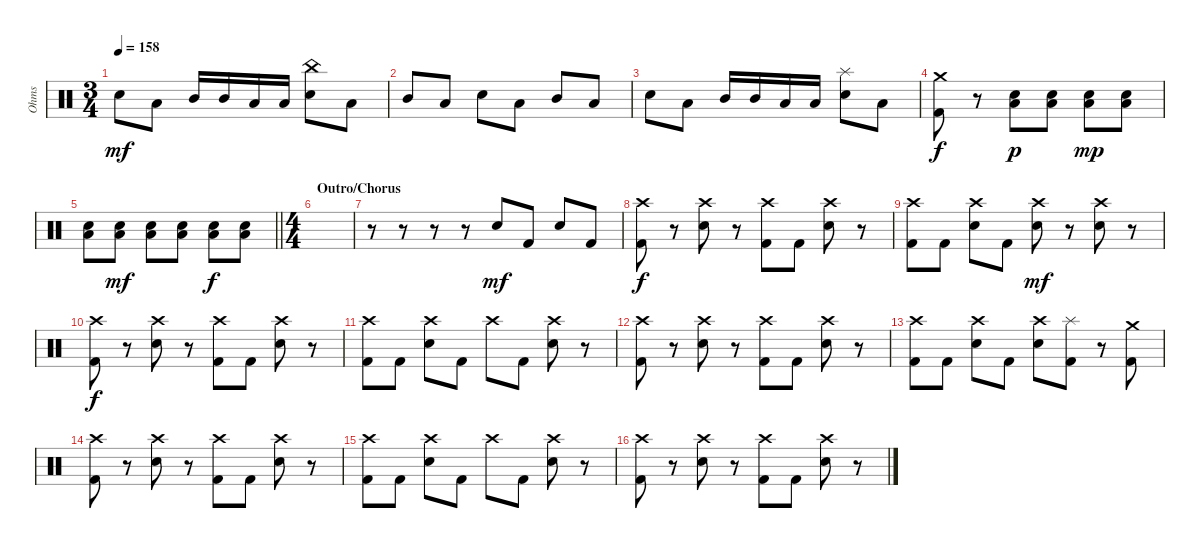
\track ("Ohms" "Ohms") {instrument percussion}
\staff {score}
\articulation defaults
\ts (3 4)
\tempo 158
\clef neutral
\ks c "Snare (hit) 2".8{dy mf} "Low Tom (hit)".8 "Mid Tom (hit)".16 "Mid Tom (hit)".16 "Low Tom (hit)".16 "Low Tom (hit)".16
("China (hit)" "Snare (hit) 2").8 "Low Tom (hit)".8 |
"Mid Tom (hit)".8 "Low Tom (hit)".8 "Snare (hit) 2".8 "Low Tom (hit)".8 "Mid Tom (hit)".8 "Low Tom (hit)".8 |
"Snare (hit) 2".8 "Low Tom (hit)".8 "Mid Tom (hit)".16 "Mid Tom (hit)".16 "Low Tom (hit)".16 "Low Tom (hit)".16 ("Splash (hit)" "Snare (hit) 2").8 "Low Tom (hit)".8 |
("Crash medium (hit)" "Kick (hit) 2").8{dy f} r.8 ("Snare (hit) 2" "Low Tom (hit)").8{dy p} ("Snare (hit) 2" "Low Tom (hit)").8 ("Snare (hit) 2" "Low Tom (hit)").8{dy mp} ("Snare (hit) 2" "Low Tom (hit)").8 |
\barLineRight lightlight
("Snare (hit) 2" "Low Tom (hit)").8 ("Snare (hit) 2" "Low Tom (hit)").8{dy mf} ("Snare (hit) 2" "Low Tom (hit)").8 ("Snare (hit) 2" "Low Tom (hit)").8 ("Snare (hit) 2" "Low Tom (hit)").8{dy f} ("Snare (hit) 2" "Low Tom (hit)").8 |
\ts (4 4)
\section ("" "Outro/Chorus")
|
r.8 r.8 r.8 r.8 "Snare (hit) 2".8{dy mf} "Kick (hit) 2".8 "Snare (hit) 2".8 "Kick (hit) 2".8 |
("Crash high (hit)" "Kick (hit) 2").8{dy f} r.8 ("Crash high (hit)" "Snare (hit) 2").8 r.8 ("Crash high (hit)" "Kick (hit) 2").8 "Kick (hit) 2".8 ("Crash high (hit)" "Snare (hit) 2").8 r.8 |
("Crash high (hit)" "Kick (hit) 2").8 "Kick (hit) 2".8 ("Crash high (hit)" "Snare (hit) 2").8 "Kick (hit) 2".8 ("Crash high (hit)" "Snare (hit) 2").8{dy mf} r.8 ("Crash high (hit)" "Snare (hit) 2").8 r.8 |
("Crash high (hit)" "Kick (hit) 2").8{dy f} r.8 ("Crash high (hit)" "Snare (hit) 2").8 r.8 ("Crash high (hit)" "Kick (hit) 2").8 "Kick (hit) 2".8 ("Crash high (hit)" "Snare (hit) 2").8 r.8 |
("Crash high (hit)" "Kick (hit) 2").8 "Kick (hit) 2".8 ("Crash high (hit)" "Snare (hit) 2").8 "Kick (hit) 2".8 "Crash high (hit)".8 "Kick (hit) 2".8 ("Crash high (hit)" "Snare (hit) 2").8 r.8 |
("Crash high (hit)" "Kick (hit) 2").8 r.8 ("Crash high (hit)" "Snare (hit) 2").8 r.8 ("Crash high (hit)" "Kick (hit) 2").8 "Kick (hit) 2".8 ("Crash high (hit)" "Snare (hit) 2").8 r.8 |
("Crash high (hit)" "Kick (hit) 2").8 "Kick (hit) 2".8 ("Crash high (hit)" "Snare (hit) 2").8 "Kick (hit) 2".8 ("Crash high (hit)" "Snare (hit) 2").8 ("Splash (hit)" "Kick (hit) 2").8 r.8 ("Crash medium (hit)" "Kick (hit) 2").8 |
("Crash high (hit)" "Kick (hit) 2").8 r.8 ("Crash high (hit)" "Snare (hit) 2").8 r.8 ("Crash high (hit)" "Kick (hit) 2").8 "Kick (hit) 2".8 ("Crash high (hit)" "Snare (hit) 2").8 r.8 |
("Crash high (hit)" "Kick (hit) 2").8 "Kick (hit) 2".8 ("Crash high (hit)" "Snare (hit) 2").8 "Kick (hit) 2".8 "Crash high (hit)".8 "Kick (hit) 2".8 ("Crash high (hit)" "Snare (hit) 2").8 r.8 |
("Crash high (hit)" "Kick (hit) 2").8 r.8 ("Crash high (hit)" "Snare (hit) 2").8 r.8 ("Crash high (hit)" "Kick (hit) 2").8 "Kick (hit) 2".8 ("Crash high (hit)" "Snare (hit) 2").8 r.8
